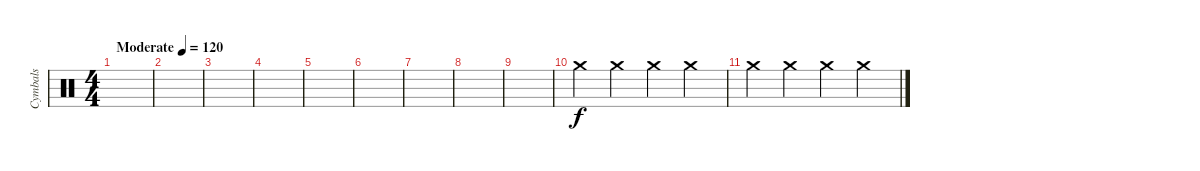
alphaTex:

\track ("Cymbals" "Cymbals") {instrument percussion}
\staff {score}
\articulation defaults
\ts (4 4)
\tempo (120 "Moderate")
\clef neutral
\ks c
|
|
|
|
|
|
|
|
|
"Crash medium (hit)".4 "Crash medium (hit)".4 "Crash medium (hit)".4 "Crash medium (hit)".4 |
"Crash medium (hit)".4 "Crash medium (hit)".4 "Crash medium (hit)".4 "Crash medium (hit)".4
